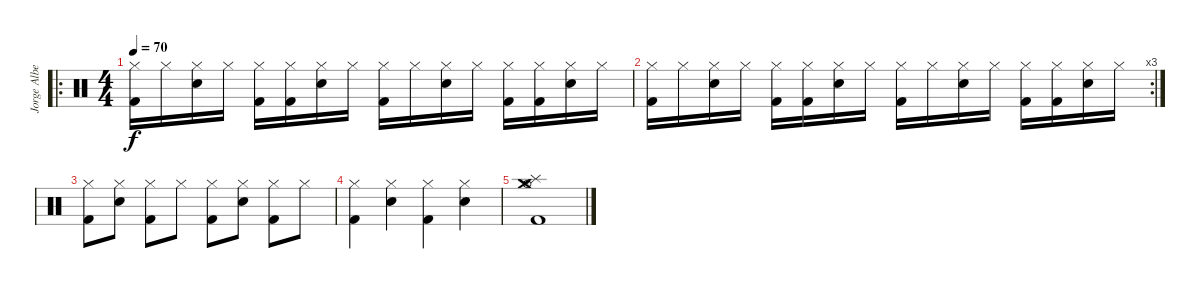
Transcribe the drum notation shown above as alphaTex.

\track ("Jorge Alberti" "Jorge Albe") {instrument percussion}
\staff {score}
\articulation defaults
\ro
\ts (4 4)
\tempo 70
\clef neutral
\ks c
("Hi-Hat (closed)" "Kick (hit) 2").16{dy f} "Hi-Hat (closed)".16 ("Hi-Hat (closed)" "Snare (hit) 2").16 "Hi-Hat (closed)".16 ("Hi-Hat (closed)" "Kick (hit) 2").16 ("Hi-Hat (closed)" "Kick (hit) 2").16 ("Hi-Hat (closed)" "Snare (hit) 2").16 "Hi-Hat (closed)".16 ("Hi-Hat (closed)" "Kick (hit) 2").16 "Hi-Hat (closed)".16 ("Hi-Hat (closed)" "Snare (hit) 2").16 "Hi-Hat (closed)".16 ("Hi-Hat (closed)" "Kick (hit) 2").16 ("Hi-Hat (closed)" "Kick (hit) 2").16 ("Hi-Hat (closed)" "Snare (hit) 2").16 "Hi-Hat (closed)".16 |
\rc 3
("Hi-Hat (closed)" "Kick (hit) 2").16 "Hi-Hat (closed)".16 ("Hi-Hat (closed)" "Snare (hit) 2").16 "Hi-Hat (closed)".16 ("Hi-Hat (closed)" "Kick (hit) 2").16 ("Hi-Hat (closed)" "Kick (hit) 2").16 ("Hi-Hat (closed)" "Snare (hit) 2").16 "Hi-Hat (closed)".16 ("Hi-Hat (closed)" "Kick (hit) 2").16 "Hi-Hat (closed)".16 ("Hi-Hat (closed)" "Snare (hit) 2").16 "Hi-Hat (closed)".16 ("Hi-Hat (closed)" "Kick (hit) 2").16 ("Hi-Hat (closed)" "Kick (hit) 2").16 ("Hi-Hat (closed)" "Snare (hit) 2").16 "Hi-Hat (closed)".16 |
("Hi-Hat (closed)" "Kick (hit) 2").8 ("Hi-Hat (closed)" "Snare (hit) 2").8 ("Hi-Hat (closed)" "Kick (hit) 2").8 "Hi-Hat (closed)".8 ("Hi-Hat (closed)" "Kick (hit) 2").8 ("Hi-Hat (closed)" "Snare (hit) 2").8 ("Hi-Hat (closed)" "Kick (hit) 2").8 "Hi-Hat (closed)".8 |
("Hi-Hat (closed)" "Kick (hit) 2").4 ("Hi-Hat (closed)" "Snare (hit) 2").4 ("Hi-Hat (closed)" "Kick (hit) 2").4 ("Hi-Hat (closed)" "Snare (hit) 2").4 |
("Splash (hit)" "Crash medium (hit)" "Hi-Hat (open)" "Kick (hit) 2").1
